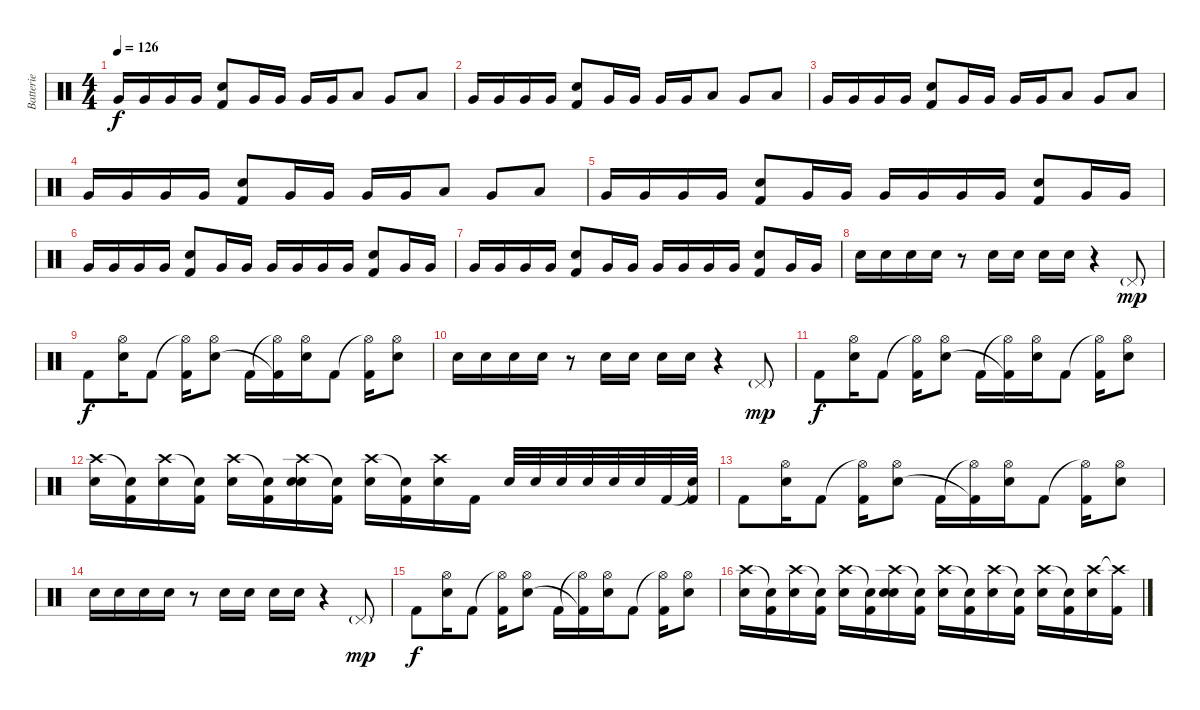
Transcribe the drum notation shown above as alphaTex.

\track ("Batterie" "Batterie") {instrument percussion}
\staff {score}
\articulation defaults
\ts (4 4)
\tempo 126
\clef neutral
\ks c "Very Low Tom (hit)".16{dy f} "Very Low Tom (hit)".16 "Very Low Tom (hit)".16 "Very Low Tom (hit)".16
("Electric Snare (hit)" "Kick (hit) 2").8 "Very Low Tom (hit)".16 "Very Low Tom (hit)".16 "Very Low Tom (hit)".16 "Very Low Tom (hit)".16 "Low Floor Tom (hit)".8 "Very Low Tom (hit)".8 "Low Floor Tom (hit)".8 |
"Very Low Tom (hit)".16 "Very Low Tom (hit)".16 "Very Low Tom (hit)".16 "Very Low Tom (hit)".16 ("Electric Snare (hit)" "Kick (hit) 2").8 "Very Low Tom (hit)".16 "Very Low Tom (hit)".16 "Very Low Tom (hit)".16 "Very Low Tom (hit)".16 "Low Floor Tom (hit)".8 "Very Low Tom (hit)".8 "Low Floor Tom (hit)".8 |
"Very Low Tom (hit)".16 "Very Low Tom (hit)".16 "Very Low Tom (hit)".16 "Very Low Tom (hit)".16 ("Electric Snare (hit)" "Kick (hit) 2").8 "Very Low Tom (hit)".16 "Very Low Tom (hit)".16 "Very Low Tom (hit)".16 "Very Low Tom (hit)".16 "Low Floor Tom (hit)".8 "Very Low Tom (hit)".8 "Low Floor Tom (hit)".8 |
"Very Low Tom (hit)".16 "Very Low Tom (hit)".16 "Very Low Tom (hit)".16 "Very Low Tom (hit)".16 ("Electric Snare (hit)" "Kick (hit) 2").8 "Very Low Tom (hit)".16 "Very Low Tom (hit)".16 "Very Low Tom (hit)".16 "Very Low Tom (hit)".16 "Low Floor Tom (hit)".8 "Very Low Tom (hit)".8 "Low Floor Tom (hit)".8 |
"Very Low Tom (hit)".16 "Very Low Tom (hit)".16 "Very Low Tom (hit)".16 "Very Low Tom (hit)".16 ("Electric Snare (hit)" "Kick (hit) 2").8 "Very Low Tom (hit)".16 "Very Low Tom (hit)".16 "Very Low Tom (hit)".16 "Very Low Tom (hit)".16 "Very Low Tom (hit)".16 "Very Low Tom (hit)".16 ("Electric Snare (hit)" "Kick (hit) 2").8 "Very Low Tom (hit)".16 "Very Low Tom (hit)".16 |
"Very Low Tom (hit)".16 "Very Low Tom (hit)".16 "Very Low Tom (hit)".16 "Very Low Tom (hit)".16 ("Electric Snare (hit)" "Kick (hit) 2").8 "Very Low Tom (hit)".16 "Very Low Tom (hit)".16 "Very Low Tom (hit)".16 "Very Low Tom (hit)".16 "Very Low Tom (hit)".16 "Very Low Tom (hit)".16 ("Electric Snare (hit)" "Kick (hit) 2").8 "Very Low Tom (hit)".16 "Very Low Tom (hit)".16 |
"Very Low Tom (hit)".16 "Very Low Tom (hit)".16 "Very Low Tom (hit)".16 "Very Low Tom (hit)".16 ("Electric Snare (hit)" "Kick (hit) 2").8 "Very Low Tom (hit)".16 "Very Low Tom (hit)".16 "Very Low Tom (hit)".16 "Very Low Tom (hit)".16 "Very Low Tom (hit)".16 "Very Low Tom (hit)".16 ("Electric Snare (hit)" "Kick (hit) 2").8 "Very Low Tom (hit)".16 "Very Low Tom (hit)".16 |
"Electric Snare (hit)".16 "Electric Snare (hit)".16 "Electric Snare (hit)".16 "Electric Snare (hit)".16 r.8 "Electric Snare (hit)".16 "Electric Snare (hit)".16 "Electric Snare (hit)".16 "Electric Snare (hit)".16 r.4 "Pedal Hi-Hat (hit)"{g}.8{dy mp} |
"Kick (hit) 2".8{dy f} ("Hi-Hat (open)" "Electric Snare (hit)").16 "Kick (hit) 2".8 ("Hi-Hat (open)"{t} "Kick (hit) 2").16 ("Hi-Hat (open)" "Electric Snare (hit)").8 "Kick (hit) 2".16 ("Hi-Hat (open)"{t} "Kick (hit) 2"{t}).16 ("Hi-Hat (open)" "Electric Snare (hit)").16 "Kick (hit) 2".8 ("Hi-Hat (open)"{t} "Kick (hit) 2").16 ("Hi-Hat (open)" "Electric Snare (hit)").8 |
"Electric Snare (hit)".16 "Electric Snare (hit)".16 "Electric Snare (hit)".16 "Electric Snare (hit)".16 r.8 "Electric Snare (hit)".16 "Electric Snare (hit)".16 "Electric Snare (hit)".16 "Electric Snare (hit)".16 r.4 "Pedal Hi-Hat (hit)"{g}.8{dy mp} |
"Kick (hit) 2".8{dy f} ("Hi-Hat (open)" "Electric Snare (hit)").16 "Kick (hit) 2".8 ("Hi-Hat (open)"{t} "Kick (hit) 2").16 ("Hi-Hat (open)" "Electric Snare (hit)").8 "Kick (hit) 2".16 ("Hi-Hat (open)"{t} "Kick (hit) 2"{t}).16 ("Hi-Hat (open)" "Electric Snare (hit)").16 "Kick (hit) 2".8 ("Hi-Hat (open)"{t} "Kick (hit) 2").16 ("Hi-Hat (open)" "Electric Snare (hit)").8 |
("Crash high (hit)" "Electric Snare (hit)").16 ("Snare (hit)"{t} "Kick (hit) 2").16 ("Crash high (hit)" "Electric Snare (hit)").16 ("Snare (hit)"{t} "Kick (hit) 2").16 ("Crash high (hit)" "Electric Snare (hit)").16 ("Snare (hit)"{t} "Kick (hit) 2").16 ("Crash high (hit)" "Electric Snare (hit)" "Electric Snare (hit)").16 ("Snare (hit)"{t} "Kick (hit) 2").16 ("Crash high (hit)" "Electric Snare (hit)").16 ("Snare (hit)"{t} "Kick (hit) 2").16 ("Crash high (hit)" "Electric Snare (hit)").16 "Kick (hit) 2".16 "Electric Snare (hit)".32 "Electric Snare (hit)".32 "Electric Snare (hit)".32 "Electric Snare (hit)".32 "Electric Snare (hit)".32 "Electric Snare (hit)".32 "Kick (hit) 2".32 ("Snare (hit)"{t} "Kick (hit) 2").32 |
"Kick (hit) 2".8 ("Hi-Hat (open)" "Electric Snare (hit)").16 "Kick (hit) 2".8 ("Hi-Hat (open)"{t} "Kick (hit) 2").16 ("Hi-Hat (open)" "Electric Snare (hit)").8 "Kick (hit) 2".16 ("Hi-Hat (open)"{t} "Kick (hit) 2"{t}).16 ("Hi-Hat (open)" "Electric Snare (hit)").16 "Kick (hit) 2".8 ("Hi-Hat (open)"{t} "Kick (hit) 2").16 ("Hi-Hat (open)" "Electric Snare (hit)").8 |
"Electric Snare (hit)".16 "Electric Snare (hit)".16 "Electric Snare (hit)".16 "Electric Snare (hit)".16 r.8 "Electric Snare (hit)".16 "Electric Snare (hit)".16 "Electric Snare (hit)".16 "Electric Snare (hit)".16 r.4 "Pedal Hi-Hat (hit)"{g}.8{dy mp} |
"Kick (hit) 2".8{dy f} ("Hi-Hat (open)" "Electric Snare (hit)").16 "Kick (hit) 2".8 ("Hi-Hat (open)"{t} "Kick (hit) 2").16 ("Hi-Hat (open)" "Electric Snare (hit)").8 "Kick (hit) 2".16 ("Hi-Hat (open)"{t} "Kick (hit) 2"{t}).16 ("Hi-Hat (open)" "Electric Snare (hit)").16 "Kick (hit) 2".8 ("Hi-Hat (open)"{t} "Kick (hit) 2").16 ("Hi-Hat (open)" "Electric Snare (hit)").8 |
("Crash high (hit)" "Electric Snare (hit)").16 ("Snare (hit)"{t} "Kick (hit) 2").16 ("Crash high (hit)" "Electric Snare (hit)").16 ("Snare (hit)"{t} "Kick (hit) 2").16 ("Crash high (hit)" "Electric Snare (hit)").16 ("Snare (hit)"{t} "Kick (hit) 2").16 ("Crash high (hit)" "Electric Snare (hit)" "Electric Snare (hit)").16 ("Snare (hit)"{t} "Kick (hit) 2").16 ("Crash high (hit)" "Electric Snare (hit)").16 ("Snare (hit)"{t} "Kick (hit) 2").16 ("Crash high (hit)" "Electric Snare (hit)").16 ("Snare (hit)"{t} "Kick (hit) 2").16 ("Crash high (hit)" "Electric Snare (hit)").16 ("Snare (hit)"{t} "Kick (hit) 2").16 ("Crash high (hit)" "Electric Snare (hit)").16 ("Crash high (hit)"{t} "Kick (hit) 2").16
